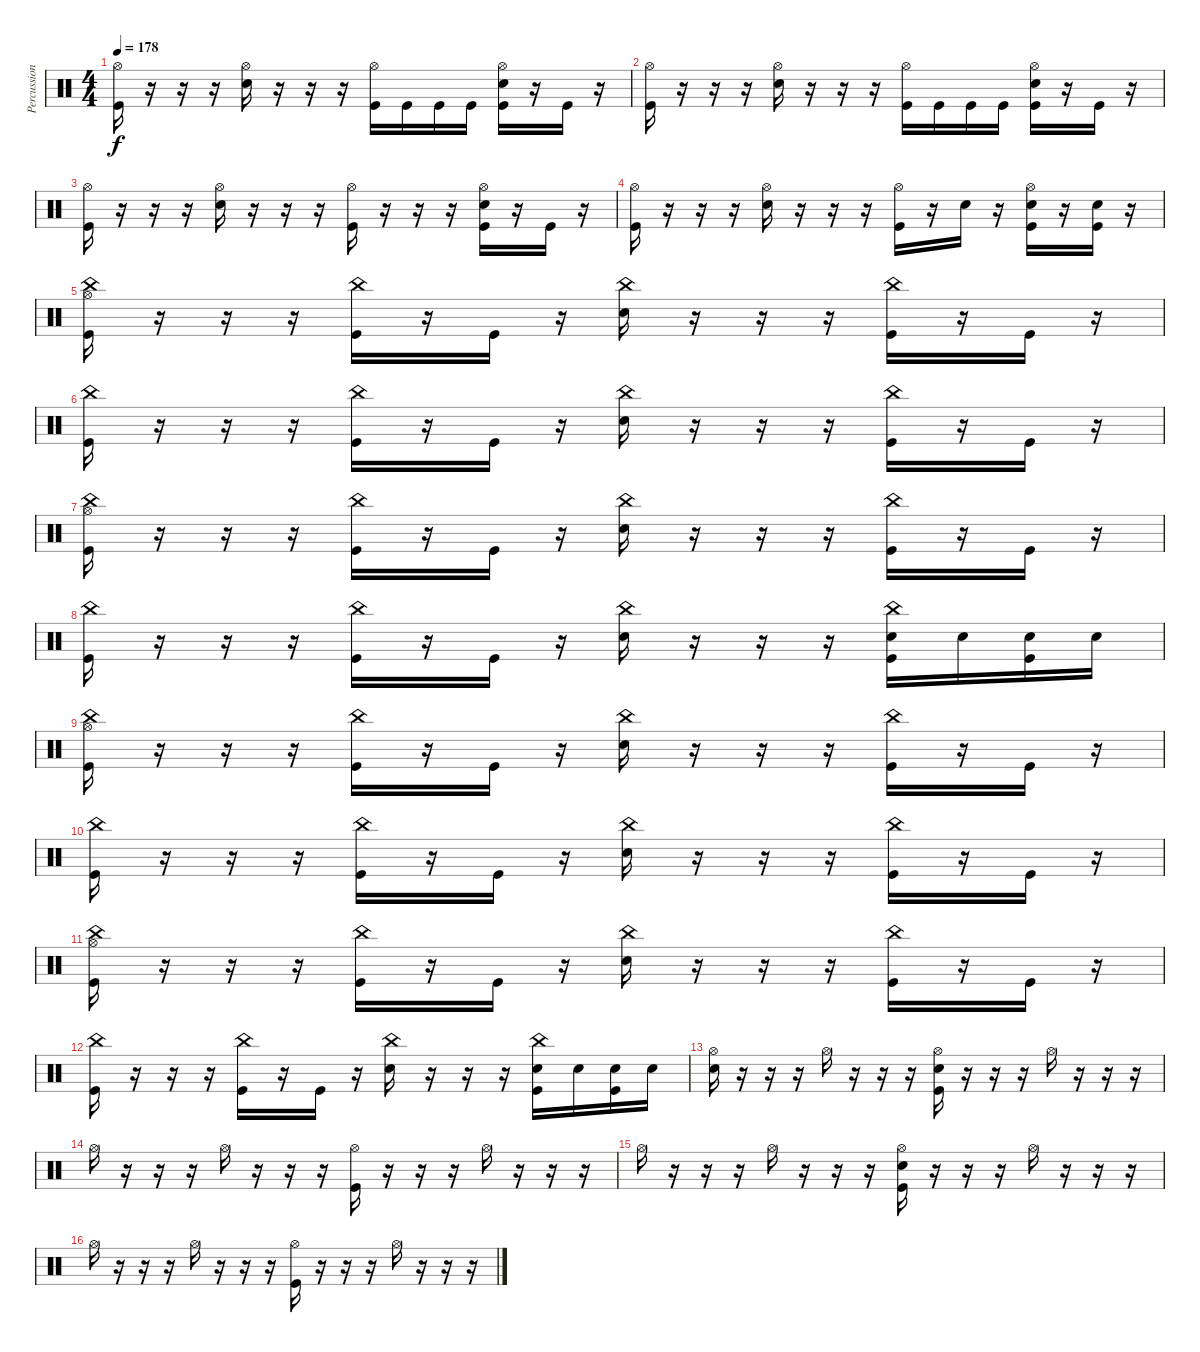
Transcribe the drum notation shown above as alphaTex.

\track ("Percussions" "Percussion") {instrument percussion}
\staff {score}
\articulation defaults
\ts (4 4)
\tempo 178
\clef neutral
\ks c
("Hi-Hat (open)" "Kick (hit)").16{dy f} r.16 r.16 r.16 ("Hi-Hat (open)" "Snare (hit) 2").16 r.16 r.16 r.16 ("Hi-Hat (open)" "Kick (hit)").16 "Kick (hit)".16 "Kick (hit)".16 "Kick (hit)".16 ("Hi-Hat (open)" "Snare (hit) 2" "Kick (hit)").16 r.16 "Kick (hit)".16 r.16 |
("Hi-Hat (open)" "Kick (hit)").16 r.16 r.16 r.16 ("Hi-Hat (open)" "Snare (hit) 2").16 r.16 r.16 r.16 ("Hi-Hat (open)" "Kick (hit)").16 "Kick (hit)".16 "Kick (hit)".16 "Kick (hit)".16 ("Hi-Hat (open)" "Snare (hit) 2" "Kick (hit)").16 r.16 "Kick (hit)".16 r.16 |
("Hi-Hat (open)" "Kick (hit)").16 r.16 r.16 r.16 ("Hi-Hat (open)" "Snare (hit) 2").16 r.16 r.16 r.16 ("Hi-Hat (open)" "Kick (hit)").16 r.16 r.16 r.16 ("Hi-Hat (open)" "Snare (hit) 2" "Kick (hit)").16 r.16 "Kick (hit)".16 r.16 |
("Hi-Hat (open)" "Kick (hit)").16 r.16 r.16 r.16 ("Hi-Hat (open)" "Snare (hit) 2").16 r.16 r.16 r.16 ("Hi-Hat (open)" "Kick (hit)").16 r.16 "Snare (hit) 2".16 r.16 ("Hi-Hat (open)" "Snare (hit) 2" "Kick (hit)").16 r.16 ("Snare (hit) 2" "Kick (hit)").16 r.16 |
("China (hit)" "Hi-Hat (open)" "Kick (hit)").16 r.16 r.16 r.16 ("China (hit)" "Kick (hit)").16 r.16 "Kick (hit)".16 r.16 ("China (hit)" "Snare (hit) 2").16 r.16 r.16 r.16 ("China (hit)" "Kick (hit)").16 r.16 "Kick (hit)".16 r.16 |
("China (hit)" "Kick (hit)").16 r.16 r.16 r.16 ("China (hit)" "Kick (hit)").16 r.16 "Kick (hit)".16 r.16 ("China (hit)" "Snare (hit) 2").16 r.16 r.16 r.16 ("China (hit)" "Kick (hit)").16 r.16 "Kick (hit)".16 r.16 |
("China (hit)" "Hi-Hat (open)" "Kick (hit)").16 r.16 r.16 r.16 ("China (hit)" "Kick (hit)").16 r.16 "Kick (hit)".16 r.16 ("China (hit)" "Snare (hit) 2").16 r.16 r.16 r.16 ("China (hit)" "Kick (hit)").16 r.16 "Kick (hit)".16 r.16 |
("China (hit)" "Kick (hit)").16 r.16 r.16 r.16 ("China (hit)" "Kick (hit)").16 r.16 "Kick (hit)".16 r.16 ("China (hit)" "Snare (hit) 2").16 r.16 r.16 r.16 ("China (hit)" "Snare (hit) 2" "Kick (hit)").16 "Snare (hit) 2".16 ("Snare (hit) 2" "Kick (hit)").16 "Snare (hit) 2".16 |
("China (hit)" "Hi-Hat (open)" "Kick (hit)").16 r.16 r.16 r.16 ("China (hit)" "Kick (hit)").16 r.16 "Kick (hit)".16 r.16 ("China (hit)" "Snare (hit) 2").16 r.16 r.16 r.16 ("China (hit)" "Kick (hit)").16 r.16 "Kick (hit)".16 r.16 |
("China (hit)" "Kick (hit)").16 r.16 r.16 r.16 ("China (hit)" "Kick (hit)").16 r.16 "Kick (hit)".16 r.16 ("China (hit)" "Snare (hit) 2").16 r.16 r.16 r.16 ("China (hit)" "Kick (hit)").16 r.16 "Kick (hit)".16 r.16 |
("China (hit)" "Hi-Hat (open)" "Kick (hit)").16 r.16 r.16 r.16 ("China (hit)" "Kick (hit)").16 r.16 "Kick (hit)".16 r.16 ("China (hit)" "Snare (hit) 2").16 r.16 r.16 r.16 ("China (hit)" "Kick (hit)").16 r.16 "Kick (hit)".16 r.16 |
("China (hit)" "Kick (hit)").16 r.16 r.16 r.16 ("China (hit)" "Kick (hit)").16 r.16 "Kick (hit)".16 r.16 ("China (hit)" "Snare (hit) 2").16 r.16 r.16 r.16 ("China (hit)" "Snare (hit) 2" "Kick (hit)").16 "Snare (hit) 2".16 ("Snare (hit) 2" "Kick (hit)").16 "Snare (hit) 2".16 |
("Hi-Hat (open)" "Snare (hit) 2").16 r.16 r.16 r.16 "Hi-Hat (open)".16 r.16 r.16 r.16 ("Hi-Hat (open)" "Electric Snare (hit)" "Kick (hit)").16 r.16 r.16 r.16 "Hi-Hat (open)".16 r.16 r.16 r.16 |
"Hi-Hat (open)".16 r.16 r.16 r.16 "Hi-Hat (open)".16 r.16 r.16 r.16 ("Hi-Hat (open)" "Kick (hit)").16 r.16 r.16 r.16 "Hi-Hat (open)".16 r.16 r.16 r.16 |
"Hi-Hat (open)".16 r.16 r.16 r.16 "Hi-Hat (open)".16 r.16 r.16 r.16 ("Hi-Hat (open)" "Electric Snare (hit)" "Kick (hit)").16 r.16 r.16 r.16 "Hi-Hat (open)".16 r.16 r.16 r.16 |
"Hi-Hat (open)".16 r.16 r.16 r.16 "Hi-Hat (open)".16 r.16 r.16 r.16 ("Hi-Hat (open)" "Kick (hit)").16 r.16 r.16 r.16 "Hi-Hat (open)".16 r.16 r.16 r.16
